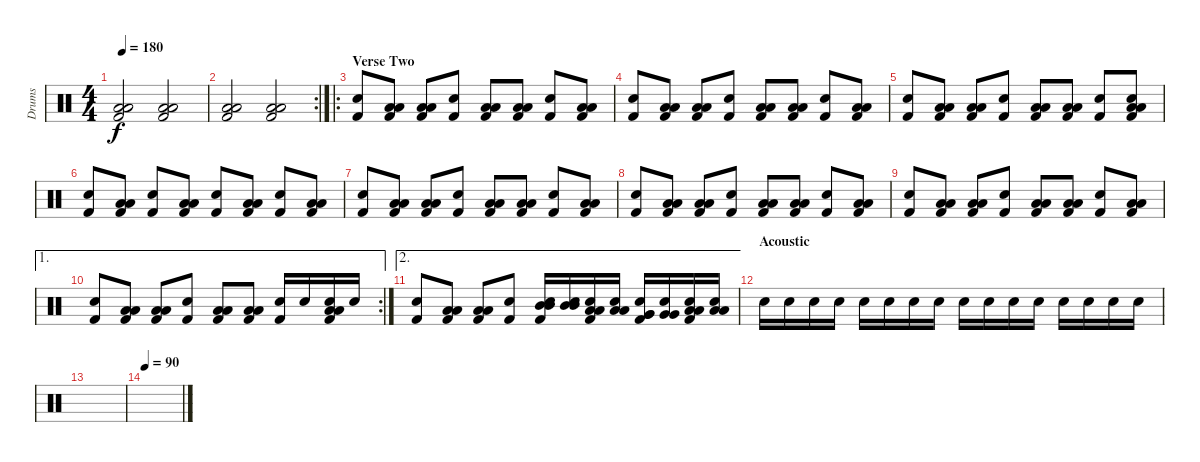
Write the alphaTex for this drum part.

\track ("Drums" "Drums") {instrument percussion}
\staff {score}
\articulation defaults
\ts (4 4)
\tempo 180
\clef neutral
\ks c
("Kick (hit) 2" "Low Tom (hit)" "Low Floor Tom (hit)").2{dy f} ("Kick (hit) 2" "Low Tom (hit)" "Low Floor Tom (hit)").2 |
\rc 2
("Kick (hit) 2" "Low Tom (hit)" "Low Floor Tom (hit)").2 ("Kick (hit) 2" "Low Tom (hit)" "Low Floor Tom (hit)").2 |
\ro
\section ("" "Verse Two")
("Kick (hit) 2" "Electric Snare (hit)").8 ("Kick (hit) 2" "Low Tom (hit)" "Low Floor Tom (hit)").8 ("Kick (hit) 2" "Low Tom (hit)" "Low Floor Tom (hit)").8 ("Kick (hit) 2" "Electric Snare (hit)").8 ("Kick (hit) 2" "Low Floor Tom (hit)" "Low Tom (hit)").8 ("Kick (hit) 2" "Low Floor Tom (hit)" "Low Tom (hit)").8 ("Kick (hit) 2" "Electric Snare (hit)").8 ("Kick (hit) 2" "Low Floor Tom (hit)" "Low Tom (hit)").8 |
("Kick (hit) 2" "Electric Snare (hit)").8 ("Kick (hit) 2" "Low Tom (hit)" "Low Floor Tom (hit)").8 ("Kick (hit) 2" "Low Tom (hit)" "Low Floor Tom (hit)").8 ("Kick (hit) 2" "Electric Snare (hit)").8 ("Kick (hit) 2" "Low Floor Tom (hit)" "Low Tom (hit)").8 ("Kick (hit) 2" "Low Floor Tom (hit)" "Low Tom (hit)").8 ("Kick (hit) 2" "Electric Snare (hit)").8 ("Kick (hit) 2" "Low Floor Tom (hit)" "Low Tom (hit)").8 |
("Kick (hit) 2" "Electric Snare (hit)").8 ("Kick (hit) 2" "Low Tom (hit)" "Low Floor Tom (hit)").8 ("Kick (hit) 2" "Low Tom (hit)" "Low Floor Tom (hit)").8 ("Kick (hit) 2" "Electric Snare (hit)").8 ("Kick (hit) 2" "Low Floor Tom (hit)" "Low Tom (hit)").8 ("Kick (hit) 2" "Low Floor Tom (hit)" "Low Tom (hit)").8 ("Kick (hit) 2" "Electric Snare (hit)").8 ("Kick (hit) 2" "Low Floor Tom (hit)" "Low Tom (hit)" "Electric Snare (hit)").8 |
("Kick (hit) 2" "Electric Snare (hit)").8 ("Kick (hit) 2" "Low Floor Tom (hit)" "Low Tom (hit)").8 ("Kick (hit) 2" "Electric Snare (hit)").8 ("Kick (hit) 2" "Low Floor Tom (hit)" "Low Tom (hit)").8 ("Kick (hit) 2" "Electric Snare (hit)").8 ("Kick (hit) 2" "Low Tom (hit)" "Low Floor Tom (hit)").8 ("Kick (hit) 2" "Electric Snare (hit)").8 ("Kick (hit) 2" "Low Tom (hit)" "Low Floor Tom (hit)").8 |
("Kick (hit) 2" "Electric Snare (hit)").8 ("Kick (hit) 2" "Low Tom (hit)" "Low Floor Tom (hit)").8 ("Kick (hit) 2" "Low Tom (hit)" "Low Floor Tom (hit)").8 ("Kick (hit) 2" "Electric Snare (hit)").8 ("Kick (hit) 2" "Low Floor Tom (hit)" "Low Tom (hit)").8 ("Kick (hit) 2" "Low Floor Tom (hit)" "Low Tom (hit)").8 ("Kick (hit) 2" "Electric Snare (hit)").8 ("Kick (hit) 2" "Low Floor Tom (hit)" "Low Tom (hit)").8 |
("Kick (hit) 2" "Electric Snare (hit)").8 ("Kick (hit) 2" "Low Tom (hit)" "Low Floor Tom (hit)").8 ("Kick (hit) 2" "Low Tom (hit)" "Low Floor Tom (hit)").8 ("Kick (hit) 2" "Electric Snare (hit)").8 ("Kick (hit) 2" "Low Floor Tom (hit)" "Low Tom (hit)").8 ("Kick (hit) 2" "Low Floor Tom (hit)" "Low Tom (hit)").8 ("Kick (hit) 2" "Electric Snare (hit)").8 ("Kick (hit) 2" "Low Floor Tom (hit)" "Low Tom (hit)").8 |
("Kick (hit) 2" "Electric Snare (hit)").8 ("Kick (hit) 2" "Low Tom (hit)" "Low Floor Tom (hit)").8 ("Kick (hit) 2" "Low Tom (hit)" "Low Floor Tom (hit)").8 ("Kick (hit) 2" "Electric Snare (hit)").8 ("Kick (hit) 2" "Low Floor Tom (hit)" "Low Tom (hit)").8 ("Kick (hit) 2" "Low Floor Tom (hit)" "Low Tom (hit)").8 ("Kick (hit) 2" "Electric Snare (hit)").8 ("Kick (hit) 2" "Low Floor Tom (hit)" "Low Tom (hit)").8 |
\ae 1
\rc 2
("Kick (hit) 2" "Electric Snare (hit)").8 ("Kick (hit) 2" "Low Tom (hit)" "Low Floor Tom (hit)").8 ("Kick (hit) 2" "Low Tom (hit)" "Low Floor Tom (hit)").8 ("Kick (hit) 2" "Electric Snare (hit)").8 ("Kick (hit) 2" "Low Floor Tom (hit)" "Low Tom (hit)").8 ("Kick (hit) 2" "Low Floor Tom (hit)" "Low Tom (hit)").8 ("Kick (hit) 2" "Electric Snare (hit)").16 "Electric Snare (hit)".16 ("Kick (hit) 2" "Low Floor Tom (hit)" "Low Tom (hit)" "Electric Snare (hit)").16 "Electric Snare (hit)".16 |
\ae 2
("Kick (hit) 2" "Electric Snare (hit)").8 ("Kick (hit) 2" "Low Tom (hit)" "Low Floor Tom (hit)").8 ("Kick (hit) 2" "Low Tom (hit)" "Low Floor Tom (hit)").8 ("Kick (hit) 2" "Electric Snare (hit)").8 ("Kick (hit) 2" "Mid Tom (hit)" "Mid Tom (hit)" "Electric Snare (hit)").16 ("Mid Tom (hit)" "Mid Tom (hit)" "Electric Snare (hit)").16 ("Kick (hit) 2" "Low Tom (hit)" "Low Tom (hit)" "Electric Snare (hit)").16 ("Low Tom (hit)" "Low Tom (hit)" "Electric Snare (hit)").16 ("Kick (hit) 2" "Very Low Tom (hit)" "Very Low Tom (hit)" "Electric Snare (hit)").16 ("Very Low Tom (hit)" "Very Low Tom (hit)" "Electric Snare (hit)").16 ("Kick (hit) 2" "Low Floor Tom (hit)" "Low Floor Tom (hit)" "Electric Snare (hit)").16 ("Low Floor Tom (hit)" "Low Floor Tom (hit)" "Electric Snare (hit)").16 |
\section ("" "Acoustic")
"Snare (hit)".16 "Snare (hit)".16 "Snare (hit)".16 "Snare (hit)".16 "Snare (hit)".16 "Snare (hit)".16 "Snare (hit)".16 "Snare (hit)".16 "Snare (hit)".16 "Snare (hit)".16 "Snare (hit)".16 "Snare (hit)".16 "Snare (hit)".16 "Snare (hit)".16 "Snare (hit)".16 "Snare (hit)".16 |
|
\tempo 90
